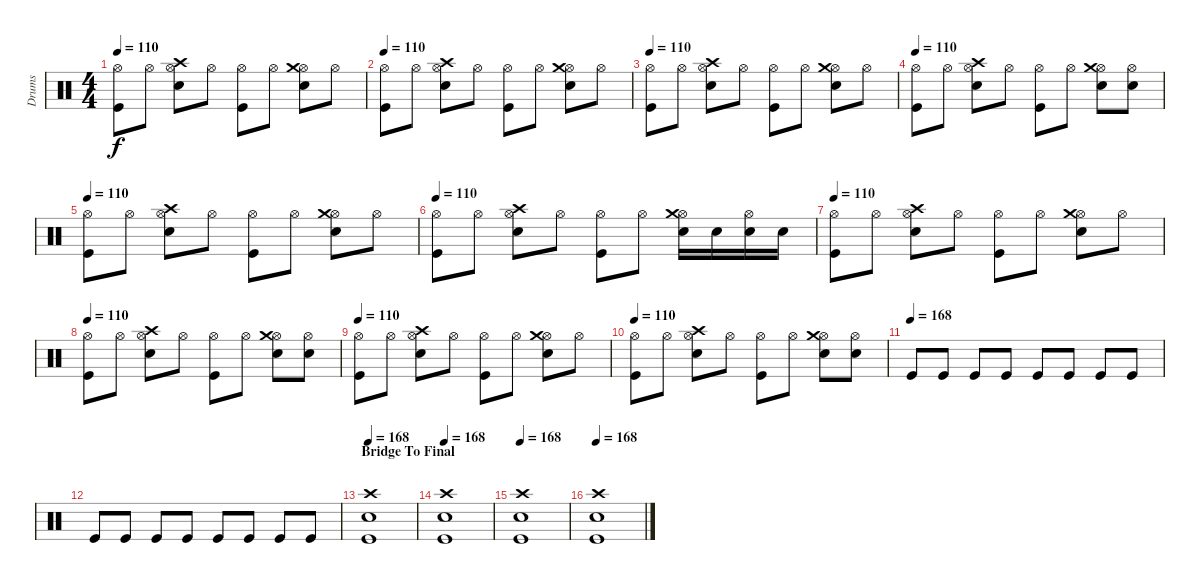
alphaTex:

\track ("Drums" "Drums") {instrument percussion}
\staff {score}
\articulation defaults
\ts (4 4)
\tempo 110
\clef neutral
\ks c
("Hi-Hat (open)" "Kick (hit)").8{dy f} "Hi-Hat (open)".8 ("Hi-Hat (open)" "Crash high (hit)" "Snare (hit) 2").8 "Hi-Hat (open)".8 ("Hi-Hat (open)" "Kick (hit)").8 "Hi-Hat (open)".8 ("Hi-Hat (open)" "Crash medium (hit)" "Snare (hit) 2").8 "Hi-Hat (open)".8 |
\tempo 110
("Hi-Hat (open)" "Kick (hit)").8 "Hi-Hat (open)".8 ("Hi-Hat (open)" "Crash high (hit)" "Snare (hit) 2").8 "Hi-Hat (open)".8 ("Hi-Hat (open)" "Kick (hit)").8 "Hi-Hat (open)".8 ("Hi-Hat (open)" "Crash medium (hit)" "Snare (hit) 2").8 "Hi-Hat (open)".8 |
\tempo 110
("Hi-Hat (open)" "Kick (hit)").8 "Hi-Hat (open)".8 ("Hi-Hat (open)" "Crash high (hit)" "Snare (hit) 2").8 "Hi-Hat (open)".8 ("Hi-Hat (open)" "Kick (hit)").8 "Hi-Hat (open)".8 ("Hi-Hat (open)" "Crash medium (hit)" "Snare (hit) 2").8 "Hi-Hat (open)".8 |
\tempo 110
("Hi-Hat (open)" "Kick (hit)").8 "Hi-Hat (open)".8 ("Hi-Hat (open)" "Crash high (hit)" "Snare (hit) 2").8 "Hi-Hat (open)".8 ("Hi-Hat (open)" "Kick (hit)").8 "Hi-Hat (open)".8 ("Hi-Hat (open)" "Crash medium (hit)" "Snare (hit) 2").8 ("Hi-Hat (open)" "Snare (hit) 2").8 |
\tempo 110
("Hi-Hat (open)" "Kick (hit)").8 "Hi-Hat (open)".8 ("Hi-Hat (open)" "Crash high (hit)" "Snare (hit) 2").8 "Hi-Hat (open)".8 ("Hi-Hat (open)" "Kick (hit)").8 "Hi-Hat (open)".8 ("Hi-Hat (open)" "Crash medium (hit)" "Snare (hit) 2").8 "Hi-Hat (open)".8 |
\tempo 110
("Hi-Hat (open)" "Kick (hit)").8 "Hi-Hat (open)".8 ("Hi-Hat (open)" "Crash high (hit)" "Snare (hit) 2").8 "Hi-Hat (open)".8 ("Hi-Hat (open)" "Kick (hit)").8 "Hi-Hat (open)".8 ("Hi-Hat (open)" "Crash medium (hit)" "Snare (hit) 2").16 "Snare (hit) 2".16 ("Hi-Hat (open)" "Snare (hit) 2").16 "Snare (hit) 2".16 |
\tempo 110
("Hi-Hat (open)" "Kick (hit)").8 "Hi-Hat (open)".8 ("Hi-Hat (open)" "Crash high (hit)" "Snare (hit) 2").8 "Hi-Hat (open)".8 ("Hi-Hat (open)" "Kick (hit)").8 "Hi-Hat (open)".8 ("Hi-Hat (open)" "Crash medium (hit)" "Snare (hit) 2").8 "Hi-Hat (open)".8 |
\tempo 110
("Hi-Hat (open)" "Kick (hit)").8 "Hi-Hat (open)".8 ("Hi-Hat (open)" "Crash high (hit)" "Snare (hit) 2").8 "Hi-Hat (open)".8 ("Hi-Hat (open)" "Kick (hit)").8 "Hi-Hat (open)".8 ("Hi-Hat (open)" "Crash medium (hit)" "Snare (hit) 2").8 ("Hi-Hat (open)" "Snare (hit) 2").8 |
\tempo 110
("Hi-Hat (open)" "Kick (hit)").8 "Hi-Hat (open)".8 ("Hi-Hat (open)" "Crash high (hit)" "Snare (hit) 2").8 "Hi-Hat (open)".8 ("Hi-Hat (open)" "Kick (hit)").8 "Hi-Hat (open)".8 ("Hi-Hat (open)" "Crash medium (hit)" "Snare (hit) 2").8 "Hi-Hat (open)".8 |
\tempo 110
("Hi-Hat (open)" "Kick (hit)").8 "Hi-Hat (open)".8 ("Hi-Hat (open)" "Crash high (hit)" "Snare (hit) 2").8 "Hi-Hat (open)".8 ("Hi-Hat (open)" "Kick (hit)").8 "Hi-Hat (open)".8 ("Hi-Hat (open)" "Crash medium (hit)" "Snare (hit) 2").8 ("Hi-Hat (open)" "Snare (hit) 2").8 |
\tempo (168)
"Kick (hit)".8{volume 16} "Kick (hit)".8 "Kick (hit)".8 "Kick (hit)".8 "Kick (hit)".8 "Kick (hit)".8 "Kick (hit)".8 "Kick (hit)".8 |
"Kick (hit)".8 "Kick (hit)".8 "Kick (hit)".8 "Kick (hit)".8 "Kick (hit)".8 "Kick (hit)".8 "Kick (hit)".8 "Kick (hit)".8 |
\section ("" "Bridge To Final")
\tempo 168
("Crash high (hit)" "Snare (hit) 2" "Kick (hit)").1 |
\tempo 168
("Crash high (hit)" "Snare (hit) 2" "Kick (hit)").1 |
\tempo 168
("Crash high (hit)" "Snare (hit) 2" "Kick (hit)").1 |
\tempo 168
("Crash high (hit)" "Snare (hit) 2" "Kick (hit)").1
